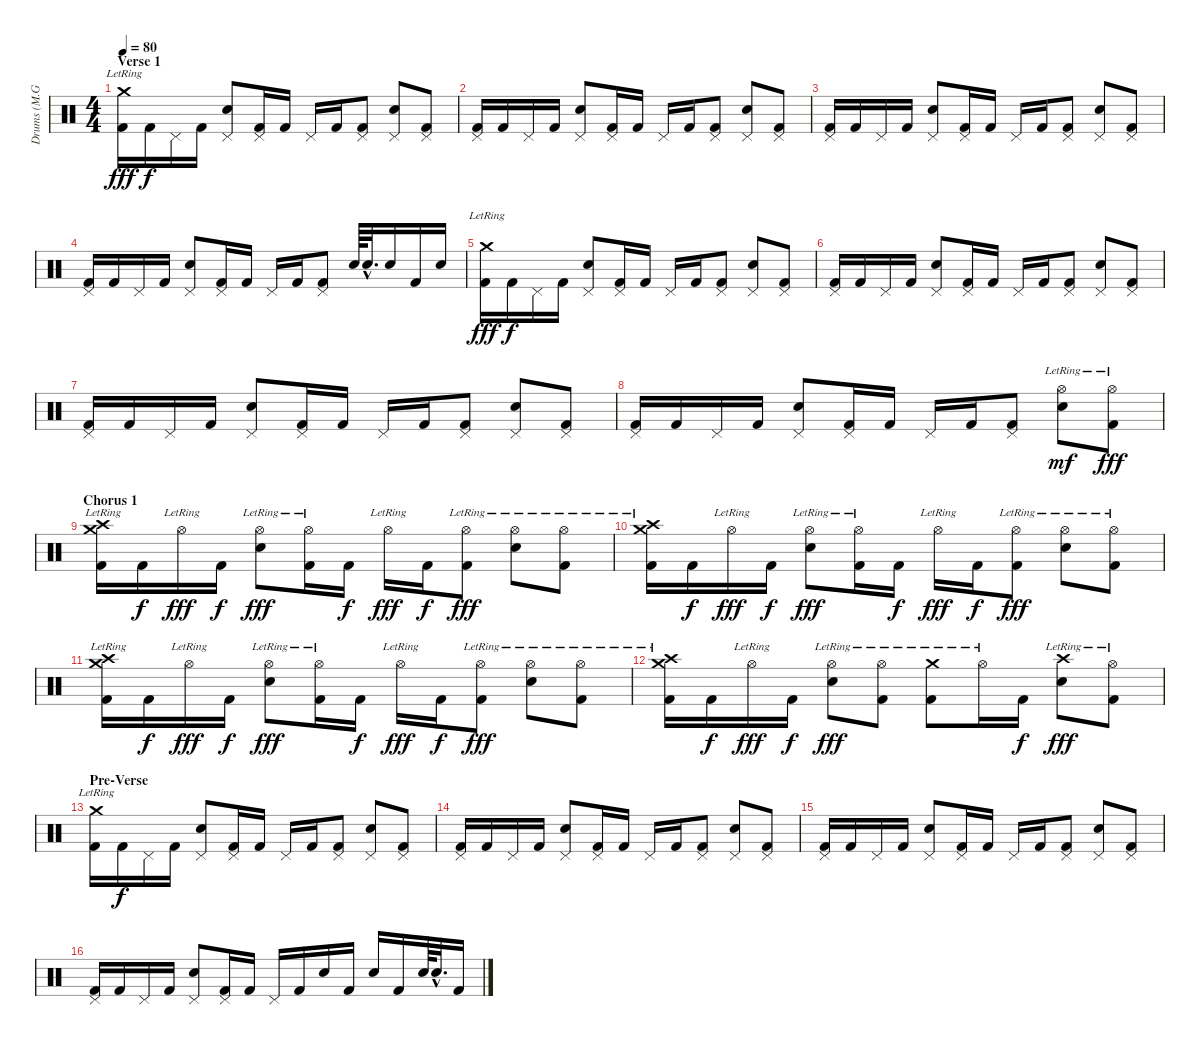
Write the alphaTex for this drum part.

\track ("Drums (M.Grosskopf)" "Drums (M.G") {instrument percussion}
\staff {score}
\articulation defaults
\ts (4 4)
\section ("" "Verse 1")
\tempo 80
\clef neutral
\ks c
("Crash medium (hit)"{lr} "Kick (hit) 2").16{dy fff} "Kick (hit) 2".16{dy f} "Pedal Hi-Hat (hit)".16 "Kick (hit) 2".16 ("Pedal Hi-Hat (hit)" "Electric Snare (hit)").8 ("Pedal Hi-Hat (hit)" "Kick (hit) 2").16 "Kick (hit) 2".16 "Pedal Hi-Hat (hit)".16 "Kick (hit) 2".16 ("Pedal Hi-Hat (hit)" "Kick (hit) 2").8 ("Pedal Hi-Hat (hit)" "Electric Snare (hit)").8 ("Pedal Hi-Hat (hit)" "Kick (hit) 2").8 |
("Pedal Hi-Hat (hit)" "Kick (hit) 2").16 "Kick (hit) 2".16 "Pedal Hi-Hat (hit)".16 "Kick (hit) 2".16 ("Pedal Hi-Hat (hit)" "Electric Snare (hit)").8 ("Pedal Hi-Hat (hit)" "Kick (hit) 2").16 "Kick (hit) 2".16 "Pedal Hi-Hat (hit)".16 "Kick (hit) 2".16 ("Pedal Hi-Hat (hit)" "Kick (hit) 2").8 ("Pedal Hi-Hat (hit)" "Electric Snare (hit)").8 ("Pedal Hi-Hat (hit)" "Kick (hit) 2").8 |
("Pedal Hi-Hat (hit)" "Kick (hit) 2").16 "Kick (hit) 2".16 "Pedal Hi-Hat (hit)".16 "Kick (hit) 2".16 ("Pedal Hi-Hat (hit)" "Electric Snare (hit)").8 ("Pedal Hi-Hat (hit)" "Kick (hit) 2").16 "Kick (hit) 2".16 "Pedal Hi-Hat (hit)".16 "Kick (hit) 2".16 ("Pedal Hi-Hat (hit)" "Kick (hit) 2").8 ("Pedal Hi-Hat (hit)" "Electric Snare (hit)").8 ("Pedal Hi-Hat (hit)" "Kick (hit) 2").8 |
("Pedal Hi-Hat (hit)" "Kick (hit) 2").16 "Kick (hit) 2".16 "Pedal Hi-Hat (hit)".16 "Kick (hit) 2".16 ("Pedal Hi-Hat (hit)" "Electric Snare (hit)").8 ("Pedal Hi-Hat (hit)" "Kick (hit) 2").16 "Kick (hit) 2".16 "Pedal Hi-Hat (hit)".16 "Kick (hit) 2".16 ("Pedal Hi-Hat (hit)" "Kick (hit) 2").8 "Electric Snare (hit)".64 "Electric Snare (hit)"{hac}.32{d} "Electric Snare (hit)".16 "Kick (hit) 2".16 "Electric Snare (hit)".16 |
("Crash medium (hit)"{lr} "Kick (hit) 2").16{dy fff} "Kick (hit) 2".16{dy f} "Pedal Hi-Hat (hit)".16 "Kick (hit) 2".16 ("Pedal Hi-Hat (hit)" "Electric Snare (hit)").8 ("Pedal Hi-Hat (hit)" "Kick (hit) 2").16 "Kick (hit) 2".16 "Pedal Hi-Hat (hit)".16 "Kick (hit) 2".16 ("Pedal Hi-Hat (hit)" "Kick (hit) 2").8 ("Pedal Hi-Hat (hit)" "Electric Snare (hit)").8 ("Pedal Hi-Hat (hit)" "Kick (hit) 2").8 |
("Pedal Hi-Hat (hit)" "Kick (hit) 2").16 "Kick (hit) 2".16 "Pedal Hi-Hat (hit)".16 "Kick (hit) 2".16 ("Pedal Hi-Hat (hit)" "Electric Snare (hit)").8 ("Pedal Hi-Hat (hit)" "Kick (hit) 2").16 "Kick (hit) 2".16 "Pedal Hi-Hat (hit)".16 "Kick (hit) 2".16 ("Pedal Hi-Hat (hit)" "Kick (hit) 2").8 ("Pedal Hi-Hat (hit)" "Electric Snare (hit)").8 ("Pedal Hi-Hat (hit)" "Kick (hit) 2").8 |
("Pedal Hi-Hat (hit)" "Kick (hit) 2").16 "Kick (hit) 2".16 "Pedal Hi-Hat (hit)".16 "Kick (hit) 2".16 ("Pedal Hi-Hat (hit)" "Electric Snare (hit)").8 ("Pedal Hi-Hat (hit)" "Kick (hit) 2").16 "Kick (hit) 2".16 "Pedal Hi-Hat (hit)".16 "Kick (hit) 2".16 ("Pedal Hi-Hat (hit)" "Kick (hit) 2").8 ("Pedal Hi-Hat (hit)" "Electric Snare (hit)").8 ("Pedal Hi-Hat (hit)" "Kick (hit) 2").8 |
("Pedal Hi-Hat (hit)" "Kick (hit) 2").16 "Kick (hit) 2".16 "Pedal Hi-Hat (hit)".16 "Kick (hit) 2".16 ("Pedal Hi-Hat (hit)" "Electric Snare (hit)").8 ("Pedal Hi-Hat (hit)" "Kick (hit) 2").16 "Kick (hit) 2".16 "Pedal Hi-Hat (hit)".16 "Kick (hit) 2".16 ("Pedal Hi-Hat (hit)" "Kick (hit) 2").8 ("Hi-Hat (open)"{lr} "Electric Snare (hit)").8{dy mf} ("Hi-Hat (open)"{lr} "Kick (hit) 2").8{dy fff} |
\section ("" "Chorus 1")
("Crash high (hit)"{lr} "Crash medium (hit)"{lr} "Kick (hit) 2").16 "Kick (hit) 2".16{dy f} "Hi-Hat (open)"{lr}.16{dy fff} "Kick (hit) 2".16{dy f} ("Hi-Hat (open)"{lr} "Electric Snare (hit)").8{dy fff} ("Hi-Hat (open)"{lr} "Kick (hit) 2").16 "Kick (hit) 2".16{dy f} "Hi-Hat (open)"{lr}.16{dy fff} "Kick (hit) 2".16{dy f} ("Hi-Hat (open)"{lr} "Kick (hit) 2").8{dy fff} ("Hi-Hat (open)"{lr} "Electric Snare (hit)").8 ("Hi-Hat (open)"{lr} "Kick (hit) 2").8 |
("Crash high (hit)"{lr} "Crash medium (hit)"{lr} "Kick (hit) 2").16 "Kick (hit) 2".16{dy f} "Hi-Hat (open)"{lr}.16{dy fff} "Kick (hit) 2".16{dy f} ("Hi-Hat (open)"{lr} "Electric Snare (hit)").8{dy fff} ("Hi-Hat (open)"{lr} "Kick (hit) 2").16 "Kick (hit) 2".16{dy f} "Hi-Hat (open)"{lr}.16{dy fff} "Kick (hit) 2".16{dy f} ("Hi-Hat (open)"{lr} "Kick (hit) 2").8{dy fff} ("Hi-Hat (open)"{lr} "Electric Snare (hit)").8 ("Hi-Hat (open)"{lr} "Kick (hit) 2").8 |
("Crash high (hit)"{lr} "Crash medium (hit)"{lr} "Kick (hit) 2").16 "Kick (hit) 2".16{dy f} "Hi-Hat (open)"{lr}.16{dy fff} "Kick (hit) 2".16{dy f} ("Hi-Hat (open)"{lr} "Electric Snare (hit)").8{dy fff} ("Hi-Hat (open)"{lr} "Kick (hit) 2").16 "Kick (hit) 2".16{dy f} "Hi-Hat (open)"{lr}.16{dy fff} "Kick (hit) 2".16{dy f} ("Hi-Hat (open)"{lr} "Kick (hit) 2").8{dy fff} ("Hi-Hat (open)"{lr} "Electric Snare (hit)").8 ("Hi-Hat (open)"{lr} "Kick (hit) 2").8 |
("Crash high (hit)"{lr} "Crash medium (hit)"{lr} "Kick (hit) 2").16 "Kick (hit) 2".16{dy f} "Hi-Hat (open)"{lr}.16{dy fff} "Kick (hit) 2".16{dy f} ("Hi-Hat (open)"{lr} "Electric Snare (hit)").8{dy fff} ("Hi-Hat (open)"{lr} "Kick (hit) 2").8 ("Crash medium (hit)"{lr} "Kick (hit) 2").8 "Hi-Hat (open)"{lr}.16 "Kick (hit) 2".16{dy f} ("Crash high (hit)"{lr} "Electric Snare (hit)").8{dy fff} ("Hi-Hat (open)"{lr} "Kick (hit) 2").8 |
\section ("" "Pre-Verse")
("Crash medium (hit)"{lr} "Kick (hit) 2").16 "Kick (hit) 2".16{dy f} "Pedal Hi-Hat (hit)".16 "Kick (hit) 2".16 ("Pedal Hi-Hat (hit)" "Electric Snare (hit)").8 ("Pedal Hi-Hat (hit)" "Kick (hit) 2").16 "Kick (hit) 2".16 "Pedal Hi-Hat (hit)".16 "Kick (hit) 2".16 ("Pedal Hi-Hat (hit)" "Kick (hit) 2").8 ("Pedal Hi-Hat (hit)" "Electric Snare (hit)").8 ("Pedal Hi-Hat (hit)" "Kick (hit) 2").8 |
("Pedal Hi-Hat (hit)" "Kick (hit) 2").16 "Kick (hit) 2".16 "Pedal Hi-Hat (hit)".16 "Kick (hit) 2".16 ("Pedal Hi-Hat (hit)" "Electric Snare (hit)").8 ("Pedal Hi-Hat (hit)" "Kick (hit) 2").16 "Kick (hit) 2".16 "Pedal Hi-Hat (hit)".16 "Kick (hit) 2".16 ("Pedal Hi-Hat (hit)" "Kick (hit) 2").8 ("Pedal Hi-Hat (hit)" "Electric Snare (hit)").8 ("Pedal Hi-Hat (hit)" "Kick (hit) 2").8 |
("Pedal Hi-Hat (hit)" "Kick (hit) 2").16 "Kick (hit) 2".16 "Pedal Hi-Hat (hit)".16 "Kick (hit) 2".16 ("Pedal Hi-Hat (hit)" "Electric Snare (hit)").8 ("Pedal Hi-Hat (hit)" "Kick (hit) 2").16 "Kick (hit) 2".16 "Pedal Hi-Hat (hit)".16 "Kick (hit) 2".16 ("Pedal Hi-Hat (hit)" "Kick (hit) 2").8 ("Pedal Hi-Hat (hit)" "Electric Snare (hit)").8 ("Pedal Hi-Hat (hit)" "Kick (hit) 2").8 |
("Pedal Hi-Hat (hit)" "Kick (hit) 2").16 "Kick (hit) 2".16 "Pedal Hi-Hat (hit)".16 "Kick (hit) 2".16 ("Pedal Hi-Hat (hit)" "Electric Snare (hit)").8 ("Pedal Hi-Hat (hit)" "Kick (hit) 2").16 "Kick (hit) 2".16 "Pedal Hi-Hat (hit)".16 "Kick (hit) 2".16 "Electric Snare (hit)".16 "Kick (hit) 2".16 "Electric Snare (hit)".16 "Kick (hit) 2".16 "Electric Snare (hit)".64 "Electric Snare (hit)"{hac}.32{d} "Kick (hit) 2".16
